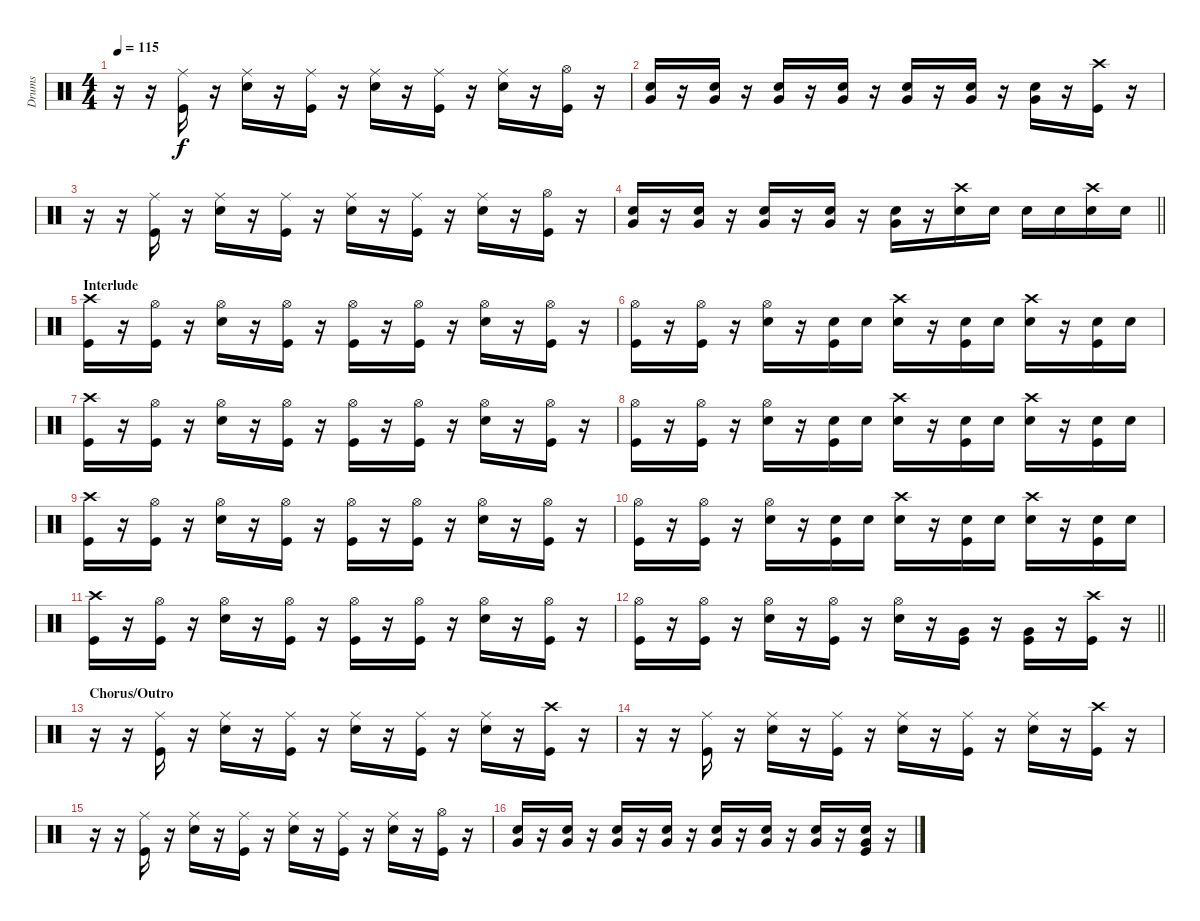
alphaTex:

\track ("Drums" "Drums") {instrument percussion}
\staff {score}
\articulation defaults
\ts (4 4)
\tempo 115
\clef neutral
\ks c
r.16{dy f} r.16 ("Ride (middle)" "Kick (hit)").16 r.16 ("Ride (middle)" "Snare (hit) 2").16 r.16 ("Ride (middle)" "Kick (hit)").16 r.16 ("Ride (middle)" "Snare (hit) 2").16 r.16 ("Ride (middle)" "Kick (hit)").16 r.16 ("Ride (middle)" "Snare (hit) 2").16 r.16 ("Hi-Hat (open)" "Kick (hit)").16 r.16 |
("Very Low Tom (hit)" "Snare (hit) 2").16 r.16 ("Very Low Tom (hit)" "Snare (hit) 2").16 r.16 ("Very Low Tom (hit)" "Snare (hit) 2").16 r.16 ("Very Low Tom (hit)" "Snare (hit) 2").16 r.16 ("Very Low Tom (hit)" "Snare (hit) 2").16 r.16 ("Very Low Tom (hit)" "Snare (hit) 2").16 r.16 ("Very Low Tom (hit)" "Snare (hit) 2").16 r.16 ("Crash high (hit)" "Kick (hit)").16 r.16 |
r.16 r.16 ("Ride (middle)" "Kick (hit)").16 r.16 ("Ride (middle)" "Snare (hit) 2").16 r.16 ("Ride (middle)" "Kick (hit)").16 r.16 ("Ride (middle)" "Snare (hit) 2").16 r.16 ("Ride (middle)" "Kick (hit)").16 r.16 ("Ride (middle)" "Snare (hit) 2").16 r.16 ("Hi-Hat (open)" "Kick (hit)").16 r.16 |
\barLineRight lightlight
("Very Low Tom (hit)" "Snare (hit) 2").16 r.16 ("Very Low Tom (hit)" "Snare (hit) 2").16 r.16 ("Very Low Tom (hit)" "Snare (hit) 2").16 r.16 ("Very Low Tom (hit)" "Snare (hit) 2").16 r.16 ("Very Low Tom (hit)" "Snare (hit) 2").16 r.16 ("Crash high (hit)" "Snare (hit) 2").16 "Snare (hit) 2".16 "Snare (hit) 2".16 "Snare (hit) 2".16 ("Crash high (hit)" "Snare (hit) 2").16 "Snare (hit) 2".16 |
\section ("" "Interlude")
("Crash high (hit)" "Kick (hit)").16 r.16 ("Hi-Hat (open)" "Kick (hit)").16 r.16 ("Hi-Hat (open)" "Snare (hit) 2").16 r.16 ("Hi-Hat (open)" "Kick (hit)").16 r.16 ("Hi-Hat (open)" "Kick (hit)").16 r.16 ("Hi-Hat (open)" "Kick (hit)").16 r.16 ("Hi-Hat (open)" "Snare (hit) 2").16 r.16 ("Hi-Hat (open)" "Kick (hit)").16 r.16 |
("Hi-Hat (open)" "Kick (hit)").16 r.16 ("Hi-Hat (open)" "Kick (hit)").16 r.16 ("Hi-Hat (open)" "Snare (hit) 2").16 r.16 ("Snare (hit) 2" "Kick (hit)").16 "Snare (hit) 2".16 ("Crash high (hit)" "Snare (hit) 2").16 r.16 ("Snare (hit) 2" "Kick (hit)").16 "Snare (hit) 2".16 ("Crash high (hit)" "Snare (hit) 2").16 r.16 ("Snare (hit) 2" "Kick (hit)").16 "Snare (hit) 2".16 |
("Crash high (hit)" "Kick (hit)").16 r.16 ("Hi-Hat (open)" "Kick (hit)").16 r.16 ("Hi-Hat (open)" "Snare (hit) 2").16 r.16 ("Hi-Hat (open)" "Kick (hit)").16 r.16 ("Hi-Hat (open)" "Kick (hit)").16 r.16 ("Hi-Hat (open)" "Kick (hit)").16 r.16 ("Hi-Hat (open)" "Snare (hit) 2").16 r.16 ("Hi-Hat (open)" "Kick (hit)").16 r.16 |
("Hi-Hat (open)" "Kick (hit)").16 r.16 ("Hi-Hat (open)" "Kick (hit)").16 r.16 ("Hi-Hat (open)" "Snare (hit) 2").16 r.16 ("Snare (hit) 2" "Kick (hit)").16 "Snare (hit) 2".16 ("Crash high (hit)" "Snare (hit) 2").16 r.16 ("Snare (hit) 2" "Kick (hit)").16 "Snare (hit) 2".16 ("Crash high (hit)" "Snare (hit) 2").16 r.16 ("Snare (hit) 2" "Kick (hit)").16 "Snare (hit) 2".16 |
("Crash high (hit)" "Kick (hit)").16 r.16 ("Hi-Hat (open)" "Kick (hit)").16 r.16 ("Hi-Hat (open)" "Snare (hit) 2").16 r.16 ("Hi-Hat (open)" "Kick (hit)").16 r.16 ("Hi-Hat (open)" "Kick (hit)").16 r.16 ("Hi-Hat (open)" "Kick (hit)").16 r.16 ("Hi-Hat (open)" "Snare (hit) 2").16 r.16 ("Hi-Hat (open)" "Kick (hit)").16 r.16 |
("Hi-Hat (open)" "Kick (hit)").16 r.16 ("Hi-Hat (open)" "Kick (hit)").16 r.16 ("Hi-Hat (open)" "Snare (hit) 2").16 r.16 ("Snare (hit) 2" "Kick (hit)").16 "Snare (hit) 2".16 ("Crash high (hit)" "Snare (hit) 2").16 r.16 ("Snare (hit) 2" "Kick (hit)").16 "Snare (hit) 2".16 ("Crash high (hit)" "Snare (hit) 2").16 r.16 ("Snare (hit) 2" "Kick (hit)").16 "Snare (hit) 2".16 |
("Crash high (hit)" "Kick (hit)").16 r.16 ("Hi-Hat (open)" "Kick (hit)").16 r.16 ("Hi-Hat (open)" "Snare (hit) 2").16 r.16 ("Hi-Hat (open)" "Kick (hit)").16 r.16 ("Hi-Hat (open)" "Kick (hit)").16 r.16 ("Hi-Hat (open)" "Kick (hit)").16 r.16 ("Hi-Hat (open)" "Snare (hit) 2").16 r.16 ("Hi-Hat (open)" "Kick (hit)").16 r.16 |
\barLineRight lightlight
("Hi-Hat (open)" "Kick (hit)").16 r.16 ("Hi-Hat (open)" "Kick (hit)").16 r.16 ("Hi-Hat (open)" "Snare (hit) 2").16 r.16 ("Hi-Hat (open)" "Kick (hit)").16 r.16 ("Hi-Hat (open)" "Snare (hit) 2").16 r.16 ("Very Low Tom (hit)" "Kick (hit)").16 r.16 ("Very Low Tom (hit)" "Kick (hit)").16 r.16 ("Crash high (hit)" "Kick (hit)").16 r.16 |
\section ("" "Chorus/Outro")
r.16 r.16 ("Ride (middle)" "Kick (hit)").16 r.16 ("Ride (middle)" "Snare (hit) 2").16 r.16 ("Ride (middle)" "Kick (hit)").16 r.16 ("Ride (middle)" "Snare (hit) 2").16 r.16 ("Ride (middle)" "Kick (hit)").16 r.16 ("Ride (middle)" "Snare (hit) 2").16 r.16 ("Crash high (hit)" "Kick (hit)").16 r.16 |
r.16 r.16 ("Ride (middle)" "Kick (hit)").16 r.16 ("Ride (middle)" "Snare (hit) 2").16 r.16 ("Ride (middle)" "Kick (hit)").16 r.16 ("Ride (middle)" "Snare (hit) 2").16 r.16 ("Ride (middle)" "Kick (hit)").16 r.16 ("Ride (middle)" "Snare (hit) 2").16 r.16 ("Crash high (hit)" "Kick (hit)").16 r.16 |
r.16 r.16 ("Ride (middle)" "Kick (hit)").16 r.16 ("Ride (middle)" "Snare (hit) 2").16 r.16 ("Ride (middle)" "Kick (hit)").16 r.16 ("Ride (middle)" "Snare (hit) 2").16 r.16 ("Ride (middle)" "Kick (hit)").16 r.16 ("Ride (middle)" "Snare (hit) 2").16 r.16 ("Hi-Hat (open)" "Kick (hit)").16 r.16 |
("Very Low Tom (hit)" "Snare (hit) 2").16 r.16 ("Very Low Tom (hit)" "Snare (hit) 2").16 r.16 ("Very Low Tom (hit)" "Snare (hit) 2").16 r.16 ("Very Low Tom (hit)" "Snare (hit) 2").16 r.16 ("Very Low Tom (hit)" "Snare (hit) 2").16 r.16 ("Very Low Tom (hit)" "Snare (hit) 2").16 r.16 ("Very Low Tom (hit)" "Snare (hit) 2").16 r.16 ("Very Low Tom (hit)" "Snare (hit) 2" "Kick (hit)").16 r.16
